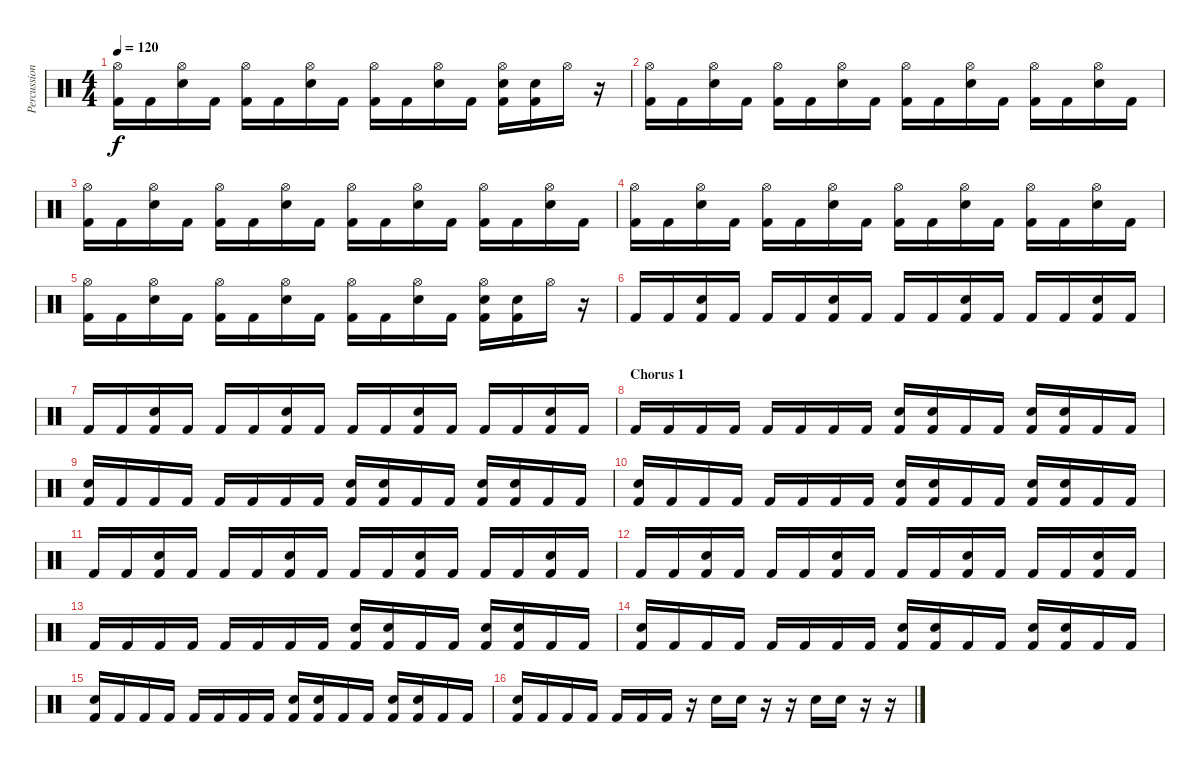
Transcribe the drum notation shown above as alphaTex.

\track ("Percussion" "Percussion") {instrument percussion}
\staff {score}
\articulation defaults
\ts (4 4)
\tempo 120
\clef neutral
\ks c
("Hi-Hat (open)" "Kick (hit) 2").16{dy f} "Kick (hit) 2".16 ("Hi-Hat (open)" "Snare (hit) 2").16 "Kick (hit) 2".16 ("Hi-Hat (open)" "Kick (hit) 2").16 "Kick (hit) 2".16 ("Hi-Hat (open)" "Snare (hit) 2").16 "Kick (hit) 2".16 ("Hi-Hat (open)" "Kick (hit) 2").16 "Kick (hit) 2".16 ("Hi-Hat (open)" "Snare (hit) 2").16 "Kick (hit) 2".16 ("Hi-Hat (open)" "Snare (hit) 2" "Kick (hit) 2").16 ("Snare (hit) 2" "Kick (hit) 2").16 "Hi-Hat (open)".16 r.16 |
("Hi-Hat (open)" "Kick (hit) 2").16 "Kick (hit) 2".16 ("Hi-Hat (open)" "Snare (hit) 2").16 "Kick (hit) 2".16 ("Hi-Hat (open)" "Kick (hit) 2").16 "Kick (hit) 2".16 ("Hi-Hat (open)" "Snare (hit) 2").16 "Kick (hit) 2".16 ("Hi-Hat (open)" "Kick (hit) 2").16 "Kick (hit) 2".16 ("Hi-Hat (open)" "Snare (hit) 2").16 "Kick (hit) 2".16 ("Hi-Hat (open)" "Kick (hit) 2").16 "Kick (hit) 2".16 ("Hi-Hat (open)" "Snare (hit) 2").16 "Kick (hit) 2".16 |
("Hi-Hat (open)" "Kick (hit) 2").16 "Kick (hit) 2".16 ("Hi-Hat (open)" "Snare (hit) 2").16 "Kick (hit) 2".16 ("Hi-Hat (open)" "Kick (hit) 2").16 "Kick (hit) 2".16 ("Hi-Hat (open)" "Snare (hit) 2").16 "Kick (hit) 2".16 ("Hi-Hat (open)" "Kick (hit) 2").16 "Kick (hit) 2".16 ("Hi-Hat (open)" "Snare (hit) 2").16 "Kick (hit) 2".16 ("Hi-Hat (open)" "Kick (hit) 2").16 "Kick (hit) 2".16 ("Hi-Hat (open)" "Snare (hit) 2").16 "Kick (hit) 2".16 |
("Hi-Hat (open)" "Kick (hit) 2").16 "Kick (hit) 2".16 ("Hi-Hat (open)" "Snare (hit) 2").16 "Kick (hit) 2".16 ("Hi-Hat (open)" "Kick (hit) 2").16 "Kick (hit) 2".16 ("Hi-Hat (open)" "Snare (hit) 2").16 "Kick (hit) 2".16 ("Hi-Hat (open)" "Kick (hit) 2").16 "Kick (hit) 2".16 ("Hi-Hat (open)" "Snare (hit) 2").16 "Kick (hit) 2".16 ("Hi-Hat (open)" "Kick (hit) 2").16 "Kick (hit) 2".16 ("Hi-Hat (open)" "Snare (hit) 2").16 "Kick (hit) 2".16 |
("Hi-Hat (open)" "Kick (hit) 2").16 "Kick (hit) 2".16 ("Hi-Hat (open)" "Snare (hit) 2").16 "Kick (hit) 2".16 ("Hi-Hat (open)" "Kick (hit) 2").16 "Kick (hit) 2".16 ("Hi-Hat (open)" "Snare (hit) 2").16 "Kick (hit) 2".16 ("Hi-Hat (open)" "Kick (hit) 2").16 "Kick (hit) 2".16 ("Hi-Hat (open)" "Snare (hit) 2").16 "Kick (hit) 2".16 ("Hi-Hat (open)" "Snare (hit) 2" "Kick (hit) 2").16 ("Snare (hit) 2" "Kick (hit) 2").16 "Hi-Hat (open)".16 r.16 |
"Kick (hit) 2".16 "Kick (hit) 2".16 ("Snare (hit) 2" "Kick (hit) 2").16 "Kick (hit) 2".16 "Kick (hit) 2".16 "Kick (hit) 2".16 ("Snare (hit) 2" "Kick (hit) 2").16 "Kick (hit) 2".16 "Kick (hit) 2".16 "Kick (hit) 2".16 ("Snare (hit) 2" "Kick (hit) 2").16 "Kick (hit) 2".16 "Kick (hit) 2".16 "Kick (hit) 2".16 ("Snare (hit) 2" "Kick (hit) 2").16 "Kick (hit) 2".16 |
"Kick (hit) 2".16 "Kick (hit) 2".16 ("Snare (hit) 2" "Kick (hit) 2").16 "Kick (hit) 2".16 "Kick (hit) 2".16 "Kick (hit) 2".16 ("Snare (hit) 2" "Kick (hit) 2").16 "Kick (hit) 2".16 "Kick (hit) 2".16 "Kick (hit) 2".16 ("Snare (hit) 2" "Kick (hit) 2").16 "Kick (hit) 2".16 "Kick (hit) 2".16 "Kick (hit) 2".16 ("Snare (hit) 2" "Kick (hit) 2").16 "Kick (hit) 2".16 |
\section ("" "Chorus 1")
"Kick (hit) 2".16 "Kick (hit) 2".16 "Kick (hit) 2".16 "Kick (hit) 2".16 "Kick (hit) 2".16 "Kick (hit) 2".16 "Kick (hit) 2".16 "Kick (hit) 2".16 ("Snare (hit) 2" "Kick (hit) 2").16 ("Snare (hit) 2" "Kick (hit) 2").16 "Kick (hit) 2".16 "Kick (hit) 2".16 ("Snare (hit) 2" "Kick (hit) 2").16 ("Snare (hit) 2" "Kick (hit) 2").16 "Kick (hit) 2".16 "Kick (hit) 2".16 |
("Snare (hit) 2" "Kick (hit) 2").16 "Kick (hit) 2".16 "Kick (hit) 2".16 "Kick (hit) 2".16 "Kick (hit) 2".16 "Kick (hit) 2".16 "Kick (hit) 2".16 "Kick (hit) 2".16 ("Snare (hit) 2" "Kick (hit) 2").16 ("Snare (hit) 2" "Kick (hit) 2").16 "Kick (hit) 2".16 "Kick (hit) 2".16 ("Snare (hit) 2" "Kick (hit) 2").16 ("Snare (hit) 2" "Kick (hit) 2").16 "Kick (hit) 2".16 "Kick (hit) 2".16 |
("Snare (hit) 2" "Kick (hit) 2").16 "Kick (hit) 2".16 "Kick (hit) 2".16 "Kick (hit) 2".16 "Kick (hit) 2".16 "Kick (hit) 2".16 "Kick (hit) 2".16 "Kick (hit) 2".16 ("Snare (hit) 2" "Kick (hit) 2").16 ("Snare (hit) 2" "Kick (hit) 2").16 "Kick (hit) 2".16 "Kick (hit) 2".16 ("Snare (hit) 2" "Kick (hit) 2").16 ("Snare (hit) 2" "Kick (hit) 2").16 "Kick (hit) 2".16 "Kick (hit) 2".16 |
"Kick (hit) 2".16 "Kick (hit) 2".16 ("Snare (hit) 2" "Kick (hit) 2").16 "Kick (hit) 2".16 "Kick (hit) 2".16 "Kick (hit) 2".16 ("Snare (hit) 2" "Kick (hit) 2").16 "Kick (hit) 2".16 "Kick (hit) 2".16 "Kick (hit) 2".16 ("Snare (hit) 2" "Kick (hit) 2").16 "Kick (hit) 2".16 "Kick (hit) 2".16 "Kick (hit) 2".16 ("Snare (hit) 2" "Kick (hit) 2").16 "Kick (hit) 2".16 |
"Kick (hit) 2".16 "Kick (hit) 2".16 ("Snare (hit) 2" "Kick (hit) 2").16 "Kick (hit) 2".16 "Kick (hit) 2".16 "Kick (hit) 2".16 ("Snare (hit) 2" "Kick (hit) 2").16 "Kick (hit) 2".16 "Kick (hit) 2".16 "Kick (hit) 2".16 ("Snare (hit) 2" "Kick (hit) 2").16 "Kick (hit) 2".16 "Kick (hit) 2".16 "Kick (hit) 2".16 ("Snare (hit) 2" "Kick (hit) 2").16 "Kick (hit) 2".16 |
"Kick (hit) 2".16 "Kick (hit) 2".16 "Kick (hit) 2".16 "Kick (hit) 2".16 "Kick (hit) 2".16 "Kick (hit) 2".16 "Kick (hit) 2".16 "Kick (hit) 2".16 ("Snare (hit) 2" "Kick (hit) 2").16 ("Snare (hit) 2" "Kick (hit) 2").16 "Kick (hit) 2".16 "Kick (hit) 2".16 ("Snare (hit) 2" "Kick (hit) 2").16 ("Snare (hit) 2" "Kick (hit) 2").16 "Kick (hit) 2".16 "Kick (hit) 2".16 |
("Snare (hit) 2" "Kick (hit) 2").16 "Kick (hit) 2".16 "Kick (hit) 2".16 "Kick (hit) 2".16 "Kick (hit) 2".16 "Kick (hit) 2".16 "Kick (hit) 2".16 "Kick (hit) 2".16 ("Snare (hit) 2" "Kick (hit) 2").16 ("Snare (hit) 2" "Kick (hit) 2").16 "Kick (hit) 2".16 "Kick (hit) 2".16 ("Snare (hit) 2" "Kick (hit) 2").16 ("Snare (hit) 2" "Kick (hit) 2").16 "Kick (hit) 2".16 "Kick (hit) 2".16 |
("Snare (hit) 2" "Kick (hit) 2").16 "Kick (hit) 2".16 "Kick (hit) 2".16 "Kick (hit) 2".16 "Kick (hit) 2".16 "Kick (hit) 2".16 "Kick (hit) 2".16 "Kick (hit) 2".16 ("Snare (hit) 2" "Kick (hit) 2").16 ("Snare (hit) 2" "Kick (hit) 2").16 "Kick (hit) 2".16 "Kick (hit) 2".16 ("Snare (hit) 2" "Kick (hit) 2").16 ("Snare (hit) 2" "Kick (hit) 2").16 "Kick (hit) 2".16 "Kick (hit) 2".16 |
("Snare (hit) 2" "Kick (hit) 2").16 "Kick (hit) 2".16 "Kick (hit) 2".16 "Kick (hit) 2".16 "Kick (hit) 2".16 "Kick (hit) 2".16 "Kick (hit) 2".16 r.16 "Snare (hit) 2".16 "Snare (hit) 2".16 r.16 r.16 "Snare (hit) 2".16 "Snare (hit) 2".16 r.16 r.16
